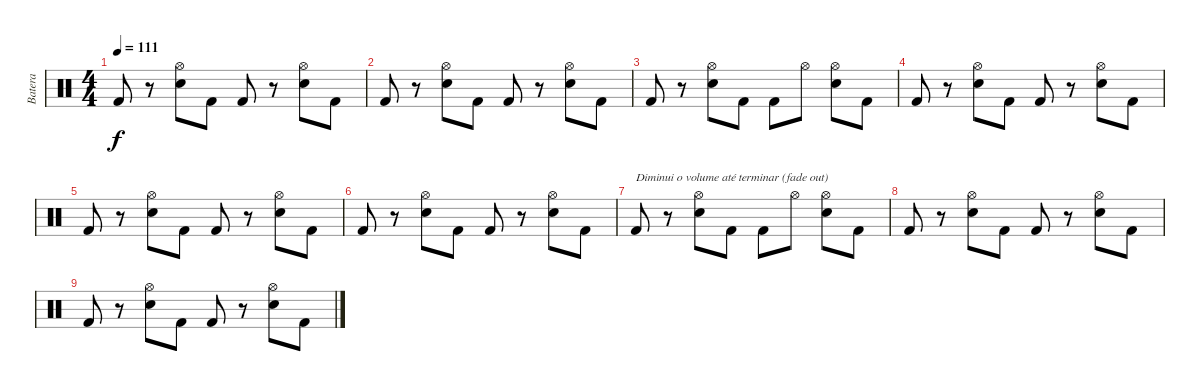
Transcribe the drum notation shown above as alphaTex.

\track ("Batera" "Batera") {instrument percussion}
\staff {score}
\articulation defaults
\ts (4 4)
\tempo 111
\clef neutral
\ks c "Kick (hit) 2".8{dy f}
r.8 ("Hi-Hat (open)" "Snare (hit) 2").8 "Kick (hit) 2".8 "Kick (hit) 2".8 r.8 ("Hi-Hat (open)" "Snare (hit) 2").8 "Kick (hit) 2".8 |
"Kick (hit) 2".8 r.8 ("Hi-Hat (open)" "Snare (hit) 2").8 "Kick (hit) 2".8 "Kick (hit) 2".8 r.8 ("Hi-Hat (open)" "Snare (hit) 2").8 "Kick (hit) 2".8 |
"Kick (hit) 2".8 r.8 ("Hi-Hat (open)" "Snare (hit) 2").8 "Kick (hit) 2".8 "Kick (hit) 2".8 "Hi-Hat (open)".8 ("Hi-Hat (open)" "Snare (hit) 2").8 "Kick (hit) 2".8 |
"Kick (hit) 2".8 r.8 ("Hi-Hat (open)" "Snare (hit) 2").8 "Kick (hit) 2".8 "Kick (hit) 2".8 r.8 ("Hi-Hat (open)" "Snare (hit) 2").8 "Kick (hit) 2".8 |
"Kick (hit) 2".8 r.8 ("Hi-Hat (open)" "Snare (hit) 2").8 "Kick (hit) 2".8 "Kick (hit) 2".8 r.8 ("Hi-Hat (open)" "Snare (hit) 2").8 "Kick (hit) 2".8 |
"Kick (hit) 2".8 r.8 ("Hi-Hat (open)" "Snare (hit) 2").8 "Kick (hit) 2".8 "Kick (hit) 2".8 r.8 ("Hi-Hat (open)" "Snare (hit) 2").8 "Kick (hit) 2".8 |
"Kick (hit) 2".8{txt "Diminui o volume até terminar (fade out)" volume 0} r.8 ("Hi-Hat (open)" "Snare (hit) 2").8 "Kick (hit) 2".8 "Kick (hit) 2".8 "Hi-Hat (open)".8 ("Hi-Hat (open)" "Snare (hit) 2").8 "Kick (hit) 2".8 |
"Kick (hit) 2".8 r.8 ("Hi-Hat (open)" "Snare (hit) 2").8 "Kick (hit) 2".8 "Kick (hit) 2".8 r.8 ("Hi-Hat (open)" "Snare (hit) 2").8 "Kick (hit) 2".8 |
"Kick (hit) 2".8 r.8 ("Hi-Hat (open)" "Snare (hit) 2").8 "Kick (hit) 2".8 "Kick (hit) 2".8 r.8 ("Hi-Hat (open)" "Snare (hit) 2").8 "Kick (hit) 2".8
